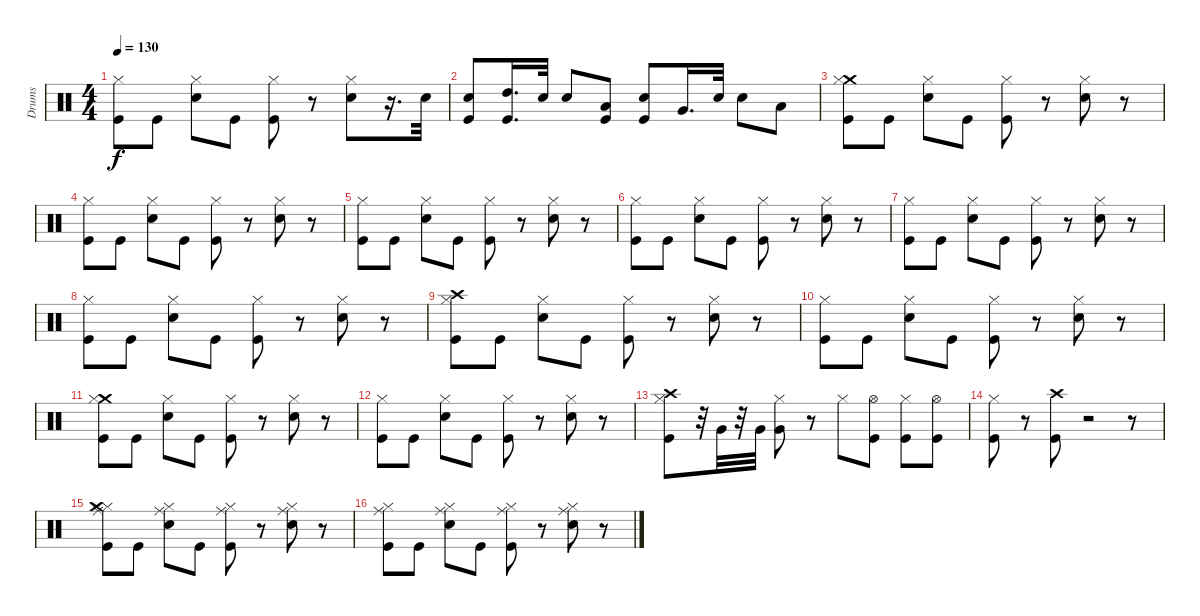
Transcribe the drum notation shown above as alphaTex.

\track ("Drums" "Drums") {instrument percussion}
\staff {score}
\articulation defaults
\ts (4 4)
\tempo 130
\clef neutral
\ks c
("Hi-Hat (closed)" "Kick (hit)").8{dy f} "Kick (hit)".8 ("Hi-Hat (closed)" "Snare (hit) 2").8 "Kick (hit)".8 ("Hi-Hat (closed)" "Kick (hit)").8 r.8 ("Hi-Hat (closed)" "Snare (hit) 2").8 r.16{d} "Snare (hit) 2".32 |
("Snare (hit) 2" "Kick (hit)").8 ("High Tom (hit)" "Kick (hit)").16{d} "Snare (hit) 2".32 "Snare (hit) 2".8 ("Low Tom (hit)" "Kick (hit)").8 ("Snare (hit) 2" "Kick (hit)").8 "Very Low Tom (hit)".16{d} "Snare (hit) 2".32 "Snare (hit) 2".8 "Low Floor Tom (hit)".8 |
("Crash medium (hit)" "Hi-Hat (closed)" "Kick (hit)").8 "Kick (hit)".8 ("Hi-Hat (closed)" "Snare (hit) 2").8 "Kick (hit)".8 ("Hi-Hat (closed)" "Kick (hit)").8 r.8 ("Hi-Hat (closed)" "Snare (hit) 2").8 r.8 |
("Hi-Hat (closed)" "Kick (hit)").8 "Kick (hit)".8 ("Hi-Hat (closed)" "Snare (hit) 2").8 "Kick (hit)".8 ("Hi-Hat (closed)" "Kick (hit)").8 r.8 ("Hi-Hat (closed)" "Snare (hit) 2").8 r.8 |
("Hi-Hat (closed)" "Kick (hit)").8 "Kick (hit)".8 ("Hi-Hat (closed)" "Snare (hit) 2").8 "Kick (hit)".8 ("Hi-Hat (closed)" "Kick (hit)").8 r.8 ("Hi-Hat (closed)" "Snare (hit) 2").8 r.8 |
("Hi-Hat (closed)" "Kick (hit)").8 "Kick (hit)".8 ("Hi-Hat (closed)" "Snare (hit) 2").8 "Kick (hit)".8 ("Hi-Hat (closed)" "Kick (hit)").8 r.8 ("Hi-Hat (closed)" "Snare (hit) 2").8 r.8 |
("Hi-Hat (closed)" "Kick (hit)").8 "Kick (hit)".8 ("Hi-Hat (closed)" "Snare (hit) 2").8 "Kick (hit)".8 ("Hi-Hat (closed)" "Kick (hit)").8 r.8 ("Hi-Hat (closed)" "Snare (hit) 2").8 r.8 |
("Hi-Hat (closed)" "Kick (hit)").8 "Kick (hit)".8 ("Hi-Hat (closed)" "Snare (hit) 2").8 "Kick (hit)".8 ("Hi-Hat (closed)" "Kick (hit)").8 r.8 ("Hi-Hat (closed)" "Snare (hit) 2").8 r.8 |
("Crash high (hit)" "Hi-Hat (closed)" "Kick (hit)").8 "Kick (hit)".8 ("Hi-Hat (closed)" "Snare (hit) 2").8 "Kick (hit)".8 ("Hi-Hat (closed)" "Kick (hit)").8 r.8 ("Hi-Hat (closed)" "Snare (hit) 2").8 r.8 |
("Hi-Hat (closed)" "Kick (hit)").8 "Kick (hit)".8 ("Hi-Hat (closed)" "Snare (hit) 2").8 "Kick (hit)".8 ("Hi-Hat (closed)" "Kick (hit)").8 r.8 ("Hi-Hat (closed)" "Snare (hit) 2").8 r.8 |
("Crash medium (hit)" "Hi-Hat (closed)" "Kick (hit)").8 "Kick (hit)".8 ("Hi-Hat (closed)" "Snare (hit) 2").8 "Kick (hit)".8 ("Hi-Hat (closed)" "Kick (hit)").8 r.8 ("Hi-Hat (closed)" "Snare (hit) 2").8 r.8 |
("Hi-Hat (closed)" "Kick (hit)").8 "Kick (hit)".8 ("Hi-Hat (closed)" "Snare (hit) 2").8 "Kick (hit)".8 ("Hi-Hat (closed)" "Kick (hit)").8 r.8 ("Hi-Hat (closed)" "Snare (hit) 2").8 r.8 |
("Crash high (hit)" "Hi-Hat (closed)" "Kick (hit)").8 r.32 "Very Low Tom (hit)".32 r.32 "Very Low Tom (hit)".32 ("Very Low Tom (hit)" "Hi-Hat (closed)").8 r.8 "Hi-Hat (closed)".8 ("Kick (hit)" "Hi-Hat (open)").8 ("Hi-Hat (closed)" "Kick (hit)").8 ("Hi-Hat (open)" "Kick (hit)").8 |
("Kick (hit)" "Hi-Hat (closed)").8 r.8 ("Kick (hit)" "Crash high (hit)").8 r.2 r.8 |
("Hi-Hat (closed)" "Ride (middle)" "Crash medium (hit)" "Kick (hit)").8 "Kick (hit)".8 ("Hi-Hat (closed)" "Ride (middle)" "Snare (hit) 2").8 "Kick (hit)".8 ("Hi-Hat (closed)" "Ride (middle)" "Kick (hit)").8 r.8 ("Hi-Hat (closed)" "Ride (middle)" "Snare (hit) 2").8 r.8 |
("Hi-Hat (closed)" "Ride (middle)" "Kick (hit)").8 "Kick (hit)".8 ("Hi-Hat (closed)" "Ride (middle)" "Snare (hit) 2").8 "Kick (hit)".8 ("Hi-Hat (closed)" "Ride (middle)" "Kick (hit)").8 r.8 ("Hi-Hat (closed)" "Ride (middle)" "Snare (hit) 2").8 r.8
